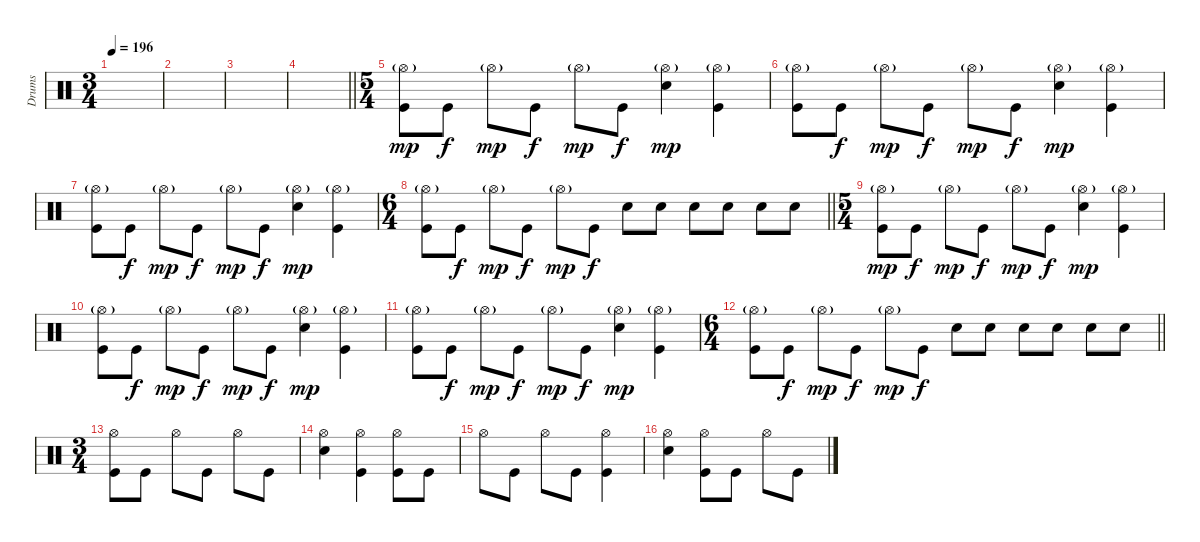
\track ("Drums" "Drums") {instrument percussion}
\staff
\articulation defaults
\ts (3 4)
\tempo 196
\clef neutral
\ks c
|
|
|
\barLineRight lightlight
|
\ts (5 4)
\section ("" "")
("Hi-Hat (open)"{g} "Kick (hit)").8{dy mp} "Kick (hit)".8{dy f} "Hi-Hat (open)"{g}.8{dy mp} "Kick (hit)".8{dy f} "Hi-Hat (open)"{g}.8{dy mp} "Kick (hit)".8{dy f} ("Hi-Hat (open)"{g} "Electric Snare (hit)").4{dy mp} ("Hi-Hat (open)"{g} "Kick (hit)").4 |
("Hi-Hat (open)"{g} "Kick (hit)").8 "Kick (hit)".8{dy f} "Hi-Hat (open)"{g}.8{dy mp} "Kick (hit)".8{dy f} "Hi-Hat (open)"{g}.8{dy mp} "Kick (hit)".8{dy f} ("Hi-Hat (open)"{g} "Electric Snare (hit)").4{dy mp} ("Hi-Hat (open)"{g} "Kick (hit)").4 |
("Hi-Hat (open)"{g} "Kick (hit)").8 "Kick (hit)".8{dy f} "Hi-Hat (open)"{g}.8{dy mp} "Kick (hit)".8{dy f} "Hi-Hat (open)"{g}.8{dy mp} "Kick (hit)".8{dy f} ("Hi-Hat (open)"{g} "Electric Snare (hit)").4{dy mp} ("Hi-Hat (open)"{g} "Kick (hit)").4 |
\ts (6 4)
\barLineRight lightlight
("Hi-Hat (open)"{g} "Kick (hit)").8 "Kick (hit)".8{dy f} "Hi-Hat (open)"{g}.8{dy mp} "Kick (hit)".8{dy f} "Hi-Hat (open)"{g}.8{dy mp} "Kick (hit)".8{dy f} "Electric Snare (hit)".8 "Electric Snare (hit)".8 "Electric Snare (hit)".8 "Electric Snare (hit)".8 "Electric Snare (hit)".8 "Electric Snare (hit)".8 |
\ts (5 4)
("Hi-Hat (open)"{g} "Kick (hit)").8{dy mp} "Kick (hit)".8{dy f} "Hi-Hat (open)"{g}.8{dy mp} "Kick (hit)".8{dy f} "Hi-Hat (open)"{g}.8{dy mp} "Kick (hit)".8{dy f} ("Hi-Hat (open)"{g} "Electric Snare (hit)").4{dy mp} ("Hi-Hat (open)"{g} "Kick (hit)").4 |
("Hi-Hat (open)"{g} "Kick (hit)").8 "Kick (hit)".8{dy f} "Hi-Hat (open)"{g}.8{dy mp} "Kick (hit)".8{dy f} "Hi-Hat (open)"{g}.8{dy mp} "Kick (hit)".8{dy f} ("Hi-Hat (open)"{g} "Electric Snare (hit)").4{dy mp} ("Hi-Hat (open)"{g} "Kick (hit)").4 |
("Hi-Hat (open)"{g} "Kick (hit)").8 "Kick (hit)".8{dy f} "Hi-Hat (open)"{g}.8{dy mp} "Kick (hit)".8{dy f} "Hi-Hat (open)"{g}.8{dy mp} "Kick (hit)".8{dy f} ("Hi-Hat (open)"{g} "Electric Snare (hit)").4{dy mp} ("Hi-Hat (open)"{g} "Kick (hit)").4 |
\ts (6 4)
\barLineRight lightlight
("Hi-Hat (open)"{g} "Kick (hit)").8 "Kick (hit)".8{dy f} "Hi-Hat (open)"{g}.8{dy mp} "Kick (hit)".8{dy f} "Hi-Hat (open)"{g}.8{dy mp} "Kick (hit)".8{dy f} "Electric Snare (hit)".8 "Electric Snare (hit)".8 "Electric Snare (hit)".8 "Electric Snare (hit)".8 "Electric Snare (hit)".8 "Electric Snare (hit)".8 |
\ts (3 4)
\section ("" "")
("Hi-Hat (open)" "Kick (hit)").8 "Kick (hit)".8 "Hi-Hat (open)".8 "Kick (hit)".8 "Hi-Hat (open)".8 "Kick (hit)".8 |
("Hi-Hat (open)" "Electric Snare (hit)").4 ("Hi-Hat (open)" "Kick (hit)").4 ("Hi-Hat (open)" "Kick (hit)").8 "Kick (hit)".8 |
"Hi-Hat (open)".8 "Kick (hit)".8 "Hi-Hat (open)".8 "Kick (hit)".8 ("Hi-Hat (open)" "Kick (hit)").4 |
("Hi-Hat (open)" "Electric Snare (hit)").4 ("Hi-Hat (open)" "Kick (hit)").8 "Kick (hit)".8 "Hi-Hat (open)".8 "Kick (hit)".8
